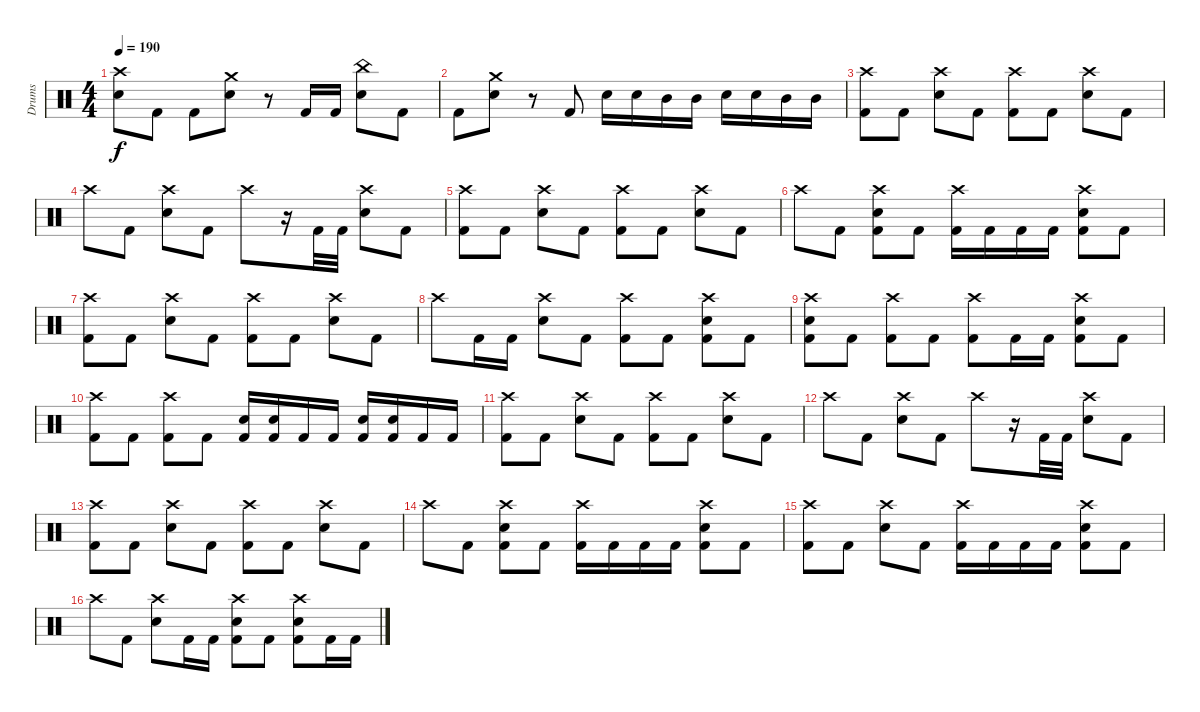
\track ("Drums" "Drums") {instrument percussion}
\staff {score}
\articulation defaults
\ts (4 4)
\tempo 190
\clef neutral
\ks c
("Crash high (hit)" "Electric Snare (hit)").8{dy f} "Kick (hit) 2".8 "Kick (hit) 2".8 ("Crash medium (hit)" "Electric Snare (hit)").8 r.8 "Kick (hit) 2".16 "Kick (hit) 2".16 ("China (hit)" "Electric Snare (hit)").8 "Kick (hit) 2".8 |
"Kick (hit) 2".8 ("Crash medium (hit)" "Electric Snare (hit)").8 r.8 "Kick (hit) 2".8 "Electric Snare (hit)".16 "Electric Snare (hit)".16 "Mid Tom (hit)".16 "Mid Tom (hit)".16 "Electric Snare (hit)".16 "Electric Snare (hit)".16 "Mid Tom (hit)".16 "Mid Tom (hit)".16 |
("Crash high (hit)" "Kick (hit) 2").8 "Kick (hit) 2".8 ("Crash high (hit)" "Electric Snare (hit)").8 "Kick (hit) 2".8 ("Crash high (hit)" "Kick (hit) 2").8 "Kick (hit) 2".8 ("Crash high (hit)" "Electric Snare (hit)").8 "Kick (hit) 2".8 |
"Crash high (hit)".8 "Kick (hit) 2".8 ("Crash high (hit)" "Electric Snare (hit)").8 "Kick (hit) 2".8 "Crash high (hit)".8 r.16 "Kick (hit) 2".32 "Kick (hit) 2".32 ("Crash high (hit)" "Electric Snare (hit)").8 "Kick (hit) 2".8 |
("Crash high (hit)" "Kick (hit) 2").8 "Kick (hit) 2".8 ("Crash high (hit)" "Electric Snare (hit)").8 "Kick (hit) 2".8 ("Crash high (hit)" "Kick (hit) 2").8 "Kick (hit) 2".8 ("Crash high (hit)" "Electric Snare (hit)").8 "Kick (hit) 2".8 |
"Crash high (hit)".8 "Kick (hit) 2".8 ("Crash high (hit)" "Electric Snare (hit)" "Kick (hit) 2").8 "Kick (hit) 2".8 ("Crash high (hit)" "Kick (hit) 2").16 "Kick (hit) 2".16 "Kick (hit) 2".16 "Kick (hit) 2".16 ("Crash high (hit)" "Electric Snare (hit)" "Kick (hit) 2").8 "Kick (hit) 2".8 |
("Crash high (hit)" "Kick (hit) 2").8 "Kick (hit) 2".8 ("Crash high (hit)" "Electric Snare (hit)").8 "Kick (hit) 2".8 ("Crash high (hit)" "Kick (hit) 2").8 "Kick (hit) 2".8 ("Crash high (hit)" "Electric Snare (hit)").8 "Kick (hit) 2".8 |
"Crash high (hit)".8 "Kick (hit) 2".16 "Kick (hit) 2".16 ("Crash high (hit)" "Electric Snare (hit)").8 "Kick (hit) 2".8 ("Crash high (hit)" "Kick (hit) 2").8 "Kick (hit) 2".8 ("Crash high (hit)" "Electric Snare (hit)" "Kick (hit) 2").8 "Kick (hit) 2".8 |
("Crash high (hit)" "Electric Snare (hit)" "Kick (hit) 2").8 "Kick (hit) 2".8 ("Crash high (hit)" "Kick (hit) 2").8 "Kick (hit) 2".8 ("Crash high (hit)" "Kick (hit) 2").8 "Kick (hit) 2".16 "Kick (hit) 2".16 ("Crash high (hit)" "Electric Snare (hit)" "Kick (hit) 2").8 "Kick (hit) 2".8 |
("Crash high (hit)" "Kick (hit) 2").8 "Kick (hit) 2".8 ("Crash high (hit)" "Kick (hit) 2").8 "Kick (hit) 2".8 ("Electric Snare (hit)" "Kick (hit) 2").16 ("Electric Snare (hit)" "Kick (hit) 2").16 "Kick (hit) 2".16 "Kick (hit) 2".16 ("Electric Snare (hit)" "Kick (hit) 2").16 ("Electric Snare (hit)" "Kick (hit) 2").16 "Kick (hit) 2".16 "Kick (hit) 2".16 |
("Crash high (hit)" "Kick (hit) 2").8 "Kick (hit) 2".8 ("Crash high (hit)" "Electric Snare (hit)").8 "Kick (hit) 2".8 ("Crash high (hit)" "Kick (hit) 2").8 "Kick (hit) 2".8 ("Crash high (hit)" "Electric Snare (hit)").8 "Kick (hit) 2".8 |
"Crash high (hit)".8 "Kick (hit) 2".8 ("Crash high (hit)" "Electric Snare (hit)").8 "Kick (hit) 2".8 "Crash high (hit)".8 r.16 "Kick (hit) 2".32 "Kick (hit) 2".32 ("Crash high (hit)" "Electric Snare (hit)").8 "Kick (hit) 2".8 |
("Crash high (hit)" "Kick (hit) 2").8 "Kick (hit) 2".8 ("Crash high (hit)" "Electric Snare (hit)").8 "Kick (hit) 2".8 ("Crash high (hit)" "Kick (hit) 2").8 "Kick (hit) 2".8 ("Crash high (hit)" "Electric Snare (hit)").8 "Kick (hit) 2".8 |
"Crash high (hit)".8 "Kick (hit) 2".8 ("Crash high (hit)" "Electric Snare (hit)" "Kick (hit) 2").8 "Kick (hit) 2".8 ("Crash high (hit)" "Kick (hit) 2").16 "Kick (hit) 2".16 "Kick (hit) 2".16 "Kick (hit) 2".16 ("Crash high (hit)" "Electric Snare (hit)" "Kick (hit) 2").8 "Kick (hit) 2".8 |
("Crash high (hit)" "Kick (hit) 2").8 "Kick (hit) 2".8 ("Crash high (hit)" "Electric Snare (hit)").8 "Kick (hit) 2".8 ("Crash high (hit)" "Kick (hit) 2").16 "Kick (hit) 2".16 "Kick (hit) 2".16 "Kick (hit) 2".16 ("Crash high (hit)" "Electric Snare (hit)" "Kick (hit) 2").8 "Kick (hit) 2".8 |
"Crash high (hit)".8 "Kick (hit) 2".8 ("Crash high (hit)" "Electric Snare (hit)").8 "Kick (hit) 2".16 "Kick (hit) 2".16 ("Crash high (hit)" "Electric Snare (hit)" "Kick (hit) 2").8 "Kick (hit) 2".8 ("Crash high (hit)" "Electric Snare (hit)" "Kick (hit) 2").8 "Kick (hit) 2".16 "Kick (hit) 2".16
